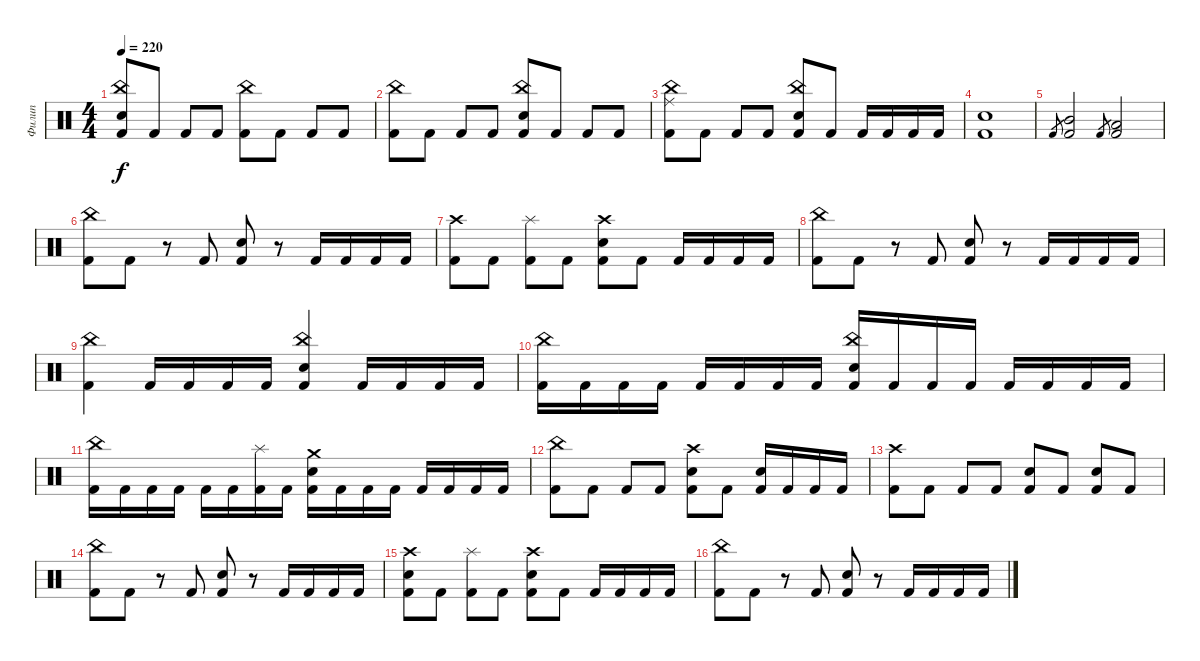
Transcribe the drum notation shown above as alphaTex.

\track ("Филип" "Филип") {instrument percussion}
\staff {score}
\articulation defaults
\ts (4 4)
\tempo 220
\clef neutral
\ks c
("Kick (hit) 2" "China (hit)" "Electric Snare (hit)").8{dy f} "Kick (hit) 2".8 "Kick (hit) 2".8 "Kick (hit) 2".8 ("China (hit)" "Kick (hit) 2").8 "Kick (hit) 2".8 "Kick (hit) 2".8 "Kick (hit) 2".8 |
("China (hit)" "Kick (hit) 2").8 "Kick (hit) 2".8 "Kick (hit) 2".8 "Kick (hit) 2".8 ("China (hit)" "Electric Snare (hit)" "Kick (hit) 2").8 "Kick (hit) 2".8 "Kick (hit) 2".8 "Kick (hit) 2".8 |
("Ride (middle)" "China (hit)" "Kick (hit) 2").8 "Kick (hit) 2".8 "Kick (hit) 2".8 "Kick (hit) 2".8 ("China (hit)" "Electric Snare (hit)" "Kick (hit) 2").8 "Kick (hit) 2".8 "Kick (hit) 2".16 "Kick (hit) 2".16 "Kick (hit) 2".16 "Kick (hit) 2".16 |
("Kick (hit) 2" "Snare (hit) 2").1 |
"Kick (hit) 2".8{gr} ("Mid Tom (hit)" "Kick (hit) 2").2 "Kick (hit) 2".8{gr} ("Low Tom (hit)" "Kick (hit) 2").2 |
("China (hit)" "Kick (hit) 2").8 "Kick (hit) 2".8 r.8 "Kick (hit) 2".8 ("Snare (hit) 2" "Kick (hit) 2").8 r.8 "Kick (hit) 2".16 "Kick (hit) 2".16 "Kick (hit) 2".16 "Kick (hit) 2".16 |
("Kick (hit) 2" "Crash high (hit)").8 "Kick (hit) 2".8 ("Kick (hit) 2" "Splash (hit)").8 "Kick (hit) 2".8 ("Kick (hit) 2" "Snare (hit) 2" "Crash high (hit)").8 "Kick (hit) 2".8 "Kick (hit) 2".16 "Kick (hit) 2".16 "Kick (hit) 2".16 "Kick (hit) 2".16 |
("China (hit)" "Kick (hit) 2").8 "Kick (hit) 2".8 r.8 "Kick (hit) 2".8 ("Snare (hit) 2" "Kick (hit) 2").8 r.8 "Kick (hit) 2".16 "Kick (hit) 2".16 "Kick (hit) 2".16 "Kick (hit) 2".16 |
("Kick (hit) 2" "China (hit)").4 "Kick (hit) 2".16 "Kick (hit) 2".16 "Kick (hit) 2".16 "Kick (hit) 2".16 ("China (hit)" "Kick (hit) 2" "Snare (hit) 2").4 "Kick (hit) 2".16 "Kick (hit) 2".16 "Kick (hit) 2".16 "Kick (hit) 2".16 |
("Kick (hit) 2" "China (hit)").16 "Kick (hit) 2".16 "Kick (hit) 2".16 "Kick (hit) 2".16 "Kick (hit) 2".16 "Kick (hit) 2".16 "Kick (hit) 2".16 "Kick (hit) 2".16 ("Kick (hit) 2" "China (hit)" "Snare (hit) 2").16 "Kick (hit) 2".16 "Kick (hit) 2".16 "Kick (hit) 2".16 "Kick (hit) 2".16 "Kick (hit) 2".16 "Kick (hit) 2".16 "Kick (hit) 2".16 |
("Kick (hit) 2" "China (hit)").16 "Kick (hit) 2".16 "Kick (hit) 2".16 "Kick (hit) 2".16 "Kick (hit) 2".16 "Kick (hit) 2".16 ("Kick (hit) 2" "Splash (hit)").16 "Kick (hit) 2".16 ("Kick (hit) 2" "Snare (hit) 2" "Crash medium (hit)").16 "Kick (hit) 2".16 "Kick (hit) 2".16 "Kick (hit) 2".16 "Kick (hit) 2".16 "Kick (hit) 2".16 "Kick (hit) 2".16 "Kick (hit) 2".16 |
("Kick (hit) 2" "China (hit)").8 "Kick (hit) 2".8 "Kick (hit) 2".8 "Kick (hit) 2".8 ("Kick (hit) 2" "Crash high (hit)" "Snare (hit) 2").8 "Kick (hit) 2".8 ("Kick (hit) 2" "Snare (hit) 2").16 "Kick (hit) 2".16 "Kick (hit) 2".16 "Kick (hit) 2".16 |
("Kick (hit) 2" "Crash high (hit)").8 "Kick (hit) 2".8 "Kick (hit) 2".8 "Kick (hit) 2".8 ("Kick (hit) 2" "Snare (hit) 2").8 "Kick (hit) 2".8 ("Kick (hit) 2" "Snare (hit) 2").8 "Kick (hit) 2".8 |
("China (hit)" "Kick (hit) 2").8 "Kick (hit) 2".8 r.8 "Kick (hit) 2".8 ("Snare (hit) 2" "Kick (hit) 2").8 r.8 "Kick (hit) 2".16 "Kick (hit) 2".16 "Kick (hit) 2".16 "Kick (hit) 2".16 |
("Kick (hit) 2" "Snare (hit) 2" "Crash high (hit)").8 "Kick (hit) 2".8 ("Kick (hit) 2" "Splash (hit)").8 "Kick (hit) 2".8 ("Kick (hit) 2" "Snare (hit) 2" "Crash high (hit)").8 "Kick (hit) 2".8 "Kick (hit) 2".16 "Kick (hit) 2".16 "Kick (hit) 2".16 "Kick (hit) 2".16 |
("China (hit)" "Kick (hit) 2").8 "Kick (hit) 2".8 r.8 "Kick (hit) 2".8 ("Snare (hit) 2" "Kick (hit) 2").8 r.8 "Kick (hit) 2".16 "Kick (hit) 2".16 "Kick (hit) 2".16 "Kick (hit) 2".16
